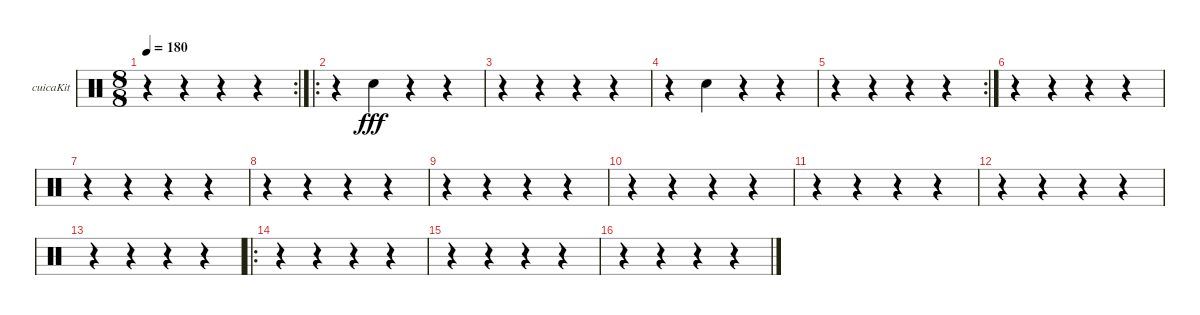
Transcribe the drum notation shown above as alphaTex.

\bracketExtendMode groupsimilarinstruments
\firstSystemTrackNameOrientation horizontal
\otherSystemsTrackNameOrientation horizontal
\track ("Cuica" "cuicaKit") {instrument percussion}
\staff {score}
\articulation defaults
\rc 2
\ts (8 8)
\tempo 180
\clef neutral
\ks c
r.4{dy fff} r.4 r.4 r.4 |
\ro
r.4 "Snare (hit) 2".4 r.4 r.4 |
r.4 r.4 r.4 r.4 |
r.4 "Snare (hit) 2".4 r.4 r.4 |
\rc 2
r.4 r.4 r.4 r.4 |
r.4 r.4 r.4 r.4 |
r.4 r.4 r.4 r.4 |
r.4 r.4 r.4 r.4 |
r.4 r.4 r.4 r.4 |
r.4 r.4 r.4 r.4 |
r.4 r.4 r.4 r.4 |
r.4 r.4 r.4 r.4 |
r.4 r.4 r.4 r.4 |
\ro
r.4 r.4 r.4 r.4 |
r.4 r.4 r.4 r.4 |
r.4 r.4 r.4 r.4
